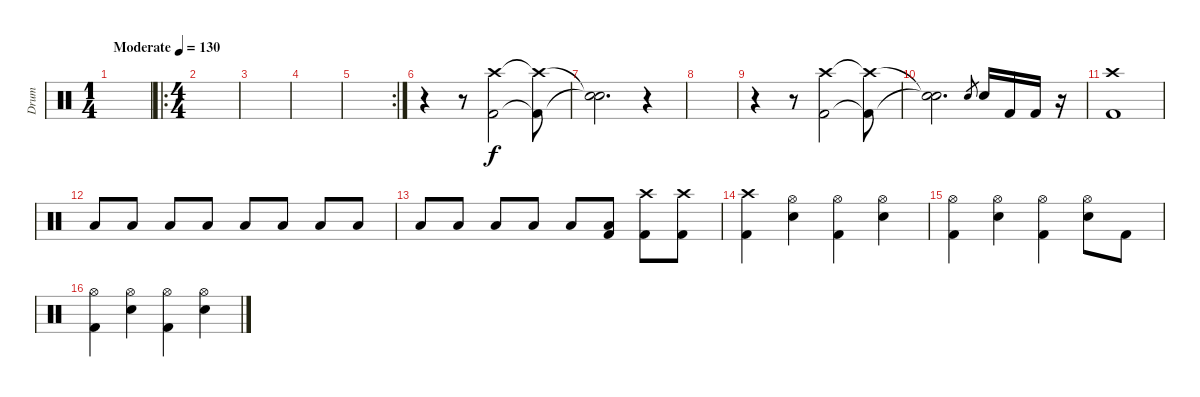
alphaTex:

\track ("Drum" "Drum") {instrument percussion}
\staff {score}
\articulation defaults
\ts (1 4)
\tempo (130 "Moderate")
\clef neutral
\ks c
|
\ro
\ts (4 4)
|
|
|
\rc 2
|
r.4 r.8 ("Crash high (hit)" "Kick (hit) 2").2 ("Crash high (hit)"{t} "Kick (hit) 2"{t}).8 |
("Snare (hit)"{t} "Snare (hit)"{t}).2{d} r.4 |
|
r.4 r.8 ("Crash high (hit)" "Kick (hit) 2").2 ("Crash high (hit)"{t} "Kick (hit) 2"{t}).8 |
("Snare (hit)"{t} "Snare (hit)"{t}).2{d} "Electric Snare (hit)".8{gr} "Electric Snare (hit)".16 "Kick (hit) 2".16 "Kick (hit) 2".16 r.16 |
("Crash high (hit)" "Kick (hit) 2").1 |
"Low Tom (hit)".8 "Low Tom (hit)".8 "Low Tom (hit)".8 "Low Tom (hit)".8 "Low Tom (hit)".8 "Low Tom (hit)".8 "Low Tom (hit)".8 "Low Tom (hit)".8 |
"Low Tom (hit)".8 "Low Tom (hit)".8 "Low Tom (hit)".8 "Low Tom (hit)".8 "Low Tom (hit)".8 ("Low Tom (hit)" "Kick (hit) 2").8 ("Crash high (hit)" "Kick (hit) 2").8 ("Crash high (hit)" "Kick (hit) 2").8 |
("Crash high (hit)" "Kick (hit) 2").4 ("Hi-Hat (open)" "Electric Snare (hit)").4 ("Hi-Hat (open)" "Kick (hit) 2").4 ("Hi-Hat (open)" "Electric Snare (hit)").4 |
("Hi-Hat (open)" "Kick (hit) 2").4 ("Hi-Hat (open)" "Electric Snare (hit)").4 ("Hi-Hat (open)" "Kick (hit) 2").4 ("Hi-Hat (open)" "Electric Snare (hit)").8 "Kick (hit) 2".8 |
("Hi-Hat (open)" "Kick (hit) 2").4 ("Hi-Hat (open)" "Electric Snare (hit)").4 ("Hi-Hat (open)" "Kick (hit) 2").4 ("Hi-Hat (open)" "Electric Snare (hit)").4
